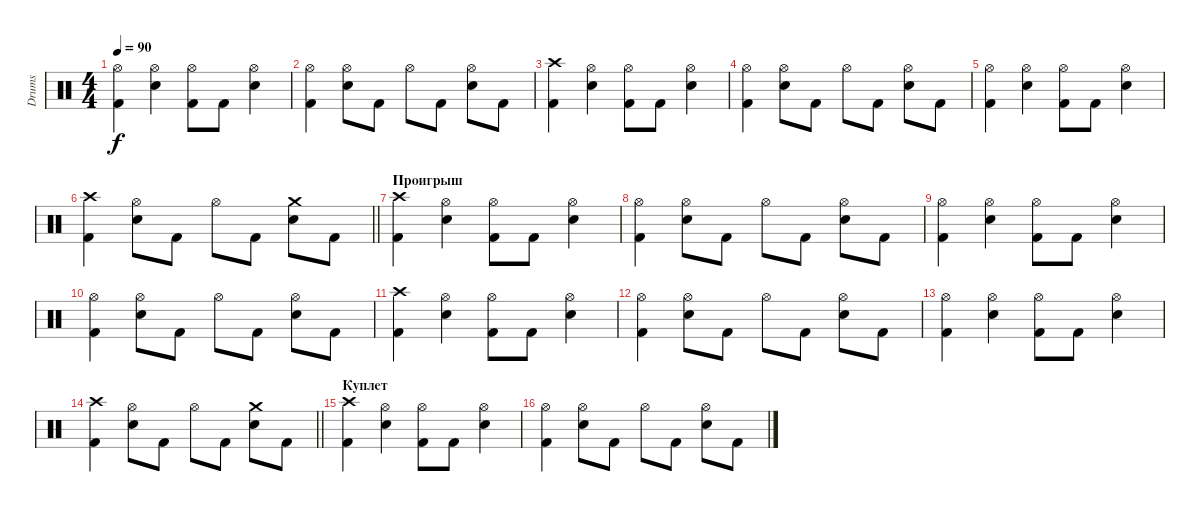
\track ("Drums" "Drums") {instrument percussion}
\staff {score}
\articulation defaults
\ts (4 4)
\tempo 90
\clef neutral
\ks c
("Hi-Hat (open)" "Kick (hit) 2").4{dy f} ("Hi-Hat (open)" "Electric Snare (hit)").4 ("Hi-Hat (open)" "Kick (hit) 2").8 "Kick (hit) 2".8 ("Hi-Hat (open)" "Electric Snare (hit)").4 |
("Hi-Hat (open)" "Kick (hit) 2").4 ("Hi-Hat (open)" "Electric Snare (hit)").8 "Kick (hit) 2".8 "Hi-Hat (open)".8 "Kick (hit) 2".8 ("Hi-Hat (open)" "Electric Snare (hit)").8 "Kick (hit) 2".8 |
("Crash high (hit)" "Kick (hit) 2").4 ("Hi-Hat (open)" "Electric Snare (hit)").4 ("Hi-Hat (open)" "Kick (hit) 2").8 "Kick (hit) 2".8 ("Hi-Hat (open)" "Electric Snare (hit)").4 |
("Hi-Hat (open)" "Kick (hit) 2").4 ("Hi-Hat (open)" "Electric Snare (hit)").8 "Kick (hit) 2".8 "Hi-Hat (open)".8 "Kick (hit) 2".8 ("Hi-Hat (open)" "Electric Snare (hit)").8 "Kick (hit) 2".8 |
("Hi-Hat (open)" "Kick (hit) 2").4 ("Hi-Hat (open)" "Electric Snare (hit)").4 ("Hi-Hat (open)" "Kick (hit) 2").8 "Kick (hit) 2".8 ("Hi-Hat (open)" "Electric Snare (hit)").4 |
\barLineRight lightlight
("Crash high (hit)" "Kick (hit) 2").4 ("Hi-Hat (open)" "Electric Snare (hit)").8 "Kick (hit) 2".8 "Hi-Hat (open)".8 "Kick (hit) 2".8 ("Crash medium (hit)" "Electric Snare (hit)").8 "Kick (hit) 2".8 |
\section ("" "Проигрыш")
("Crash high (hit)" "Kick (hit) 2").4 ("Hi-Hat (open)" "Electric Snare (hit)").4 ("Hi-Hat (open)" "Kick (hit) 2").8 "Kick (hit) 2".8 ("Hi-Hat (open)" "Electric Snare (hit)").4 |
("Hi-Hat (open)" "Kick (hit) 2").4 ("Hi-Hat (open)" "Electric Snare (hit)").8 "Kick (hit) 2".8 "Hi-Hat (open)".8 "Kick (hit) 2".8 ("Hi-Hat (open)" "Electric Snare (hit)").8 "Kick (hit) 2".8 |
("Hi-Hat (open)" "Kick (hit) 2").4 ("Hi-Hat (open)" "Electric Snare (hit)").4 ("Hi-Hat (open)" "Kick (hit) 2").8 "Kick (hit) 2".8 ("Hi-Hat (open)" "Electric Snare (hit)").4 |
("Hi-Hat (open)" "Kick (hit) 2").4 ("Hi-Hat (open)" "Electric Snare (hit)").8 "Kick (hit) 2".8 "Hi-Hat (open)".8 "Kick (hit) 2".8 ("Hi-Hat (open)" "Electric Snare (hit)").8 "Kick (hit) 2".8 |
("Crash high (hit)" "Kick (hit) 2").4 ("Hi-Hat (open)" "Electric Snare (hit)").4 ("Hi-Hat (open)" "Kick (hit) 2").8 "Kick (hit) 2".8 ("Hi-Hat (open)" "Electric Snare (hit)").4 |
("Hi-Hat (open)" "Kick (hit) 2").4 ("Hi-Hat (open)" "Electric Snare (hit)").8 "Kick (hit) 2".8 "Hi-Hat (open)".8 "Kick (hit) 2".8 ("Hi-Hat (open)" "Electric Snare (hit)").8 "Kick (hit) 2".8 |
("Hi-Hat (open)" "Kick (hit) 2").4 ("Hi-Hat (open)" "Electric Snare (hit)").4 ("Hi-Hat (open)" "Kick (hit) 2").8 "Kick (hit) 2".8 ("Hi-Hat (open)" "Electric Snare (hit)").4 |
\barLineRight lightlight
("Crash high (hit)" "Kick (hit) 2").4 ("Hi-Hat (open)" "Electric Snare (hit)").8 "Kick (hit) 2".8 "Hi-Hat (open)".8 "Kick (hit) 2".8 ("Crash medium (hit)" "Electric Snare (hit)").8 "Kick (hit) 2".8 |
\section ("" "Куплет")
("Crash high (hit)" "Kick (hit) 2").4 ("Hi-Hat (open)" "Electric Snare (hit)").4 ("Hi-Hat (open)" "Kick (hit) 2").8 "Kick (hit) 2".8 ("Hi-Hat (open)" "Electric Snare (hit)").4 |
("Hi-Hat (open)" "Kick (hit) 2").4 ("Hi-Hat (open)" "Electric Snare (hit)").8 "Kick (hit) 2".8 "Hi-Hat (open)".8 "Kick (hit) 2".8 ("Hi-Hat (open)" "Electric Snare (hit)").8 "Kick (hit) 2".8
